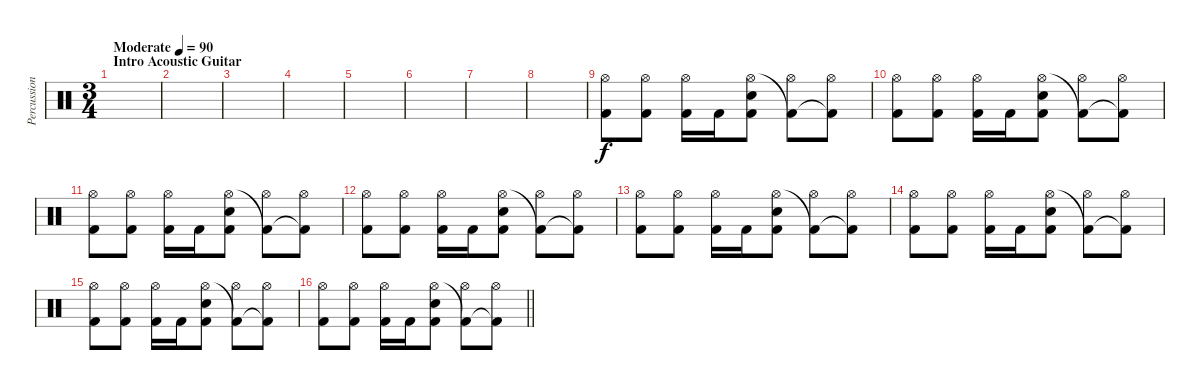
\track ("Percussioni" "Percussion") {instrument percussion}
\staff {score}
\articulation defaults
\ts (3 4)
\section ("" "Intro Acoustic Guitar")
\tempo (90 "Moderate")
\clef neutral
\ks c
|
|
|
|
|
|
|
|
("Hi-Hat (open)" "Kick (hit) 2").8 ("Hi-Hat (open)" "Kick (hit) 2").8 ("Hi-Hat (open)" "Kick (hit) 2").16 "Kick (hit) 2".16 ("Snare (hit) 2" "Hi-Hat (open)" "Kick (hit) 2").8 ("Hi-Hat (open)" "Kick (hit) 2"{t}).8 ("Hi-Hat (open)" "Kick (hit) 2"{t}).8 |
("Hi-Hat (open)" "Kick (hit) 2").8 ("Hi-Hat (open)" "Kick (hit) 2").8 ("Hi-Hat (open)" "Kick (hit) 2").16 "Kick (hit) 2".16 ("Snare (hit) 2" "Hi-Hat (open)" "Kick (hit) 2").8 ("Hi-Hat (open)" "Kick (hit) 2"{t}).8 ("Hi-Hat (open)" "Kick (hit) 2"{t}).8 |
("Hi-Hat (open)" "Kick (hit) 2").8 ("Hi-Hat (open)" "Kick (hit) 2").8 ("Hi-Hat (open)" "Kick (hit) 2").16 "Kick (hit) 2".16 ("Snare (hit) 2" "Hi-Hat (open)" "Kick (hit) 2").8 ("Hi-Hat (open)" "Kick (hit) 2"{t}).8 ("Hi-Hat (open)" "Kick (hit) 2"{t}).8 |
("Hi-Hat (open)" "Kick (hit) 2").8 ("Hi-Hat (open)" "Kick (hit) 2").8 ("Hi-Hat (open)" "Kick (hit) 2").16 "Kick (hit) 2".16 ("Snare (hit) 2" "Hi-Hat (open)" "Kick (hit) 2").8 ("Hi-Hat (open)" "Kick (hit) 2"{t}).8 ("Hi-Hat (open)" "Kick (hit) 2"{t}).8 |
("Hi-Hat (open)" "Kick (hit) 2").8 ("Hi-Hat (open)" "Kick (hit) 2").8 ("Hi-Hat (open)" "Kick (hit) 2").16 "Kick (hit) 2".16 ("Snare (hit) 2" "Hi-Hat (open)" "Kick (hit) 2").8 ("Hi-Hat (open)" "Kick (hit) 2"{t}).8 ("Hi-Hat (open)" "Kick (hit) 2"{t}).8 |
("Hi-Hat (open)" "Kick (hit) 2").8 ("Hi-Hat (open)" "Kick (hit) 2").8 ("Hi-Hat (open)" "Kick (hit) 2").16 "Kick (hit) 2".16 ("Snare (hit) 2" "Hi-Hat (open)" "Kick (hit) 2").8 ("Hi-Hat (open)" "Kick (hit) 2"{t}).8 ("Hi-Hat (open)" "Kick (hit) 2"{t}).8 |
("Hi-Hat (open)" "Kick (hit) 2").8 ("Hi-Hat (open)" "Kick (hit) 2").8 ("Hi-Hat (open)" "Kick (hit) 2").16 "Kick (hit) 2".16 ("Snare (hit) 2" "Hi-Hat (open)" "Kick (hit) 2").8 ("Hi-Hat (open)" "Kick (hit) 2"{t}).8 ("Hi-Hat (open)" "Kick (hit) 2"{t}).8 |
\barLineRight lightlight
("Hi-Hat (open)" "Kick (hit) 2").8 ("Hi-Hat (open)" "Kick (hit) 2").8 ("Hi-Hat (open)" "Kick (hit) 2").16 "Kick (hit) 2".16 ("Snare (hit) 2" "Hi-Hat (open)" "Kick (hit) 2").8 ("Hi-Hat (open)" "Kick (hit) 2"{t}).8 ("Hi-Hat (open)" "Kick (hit) 2"{t}).8
